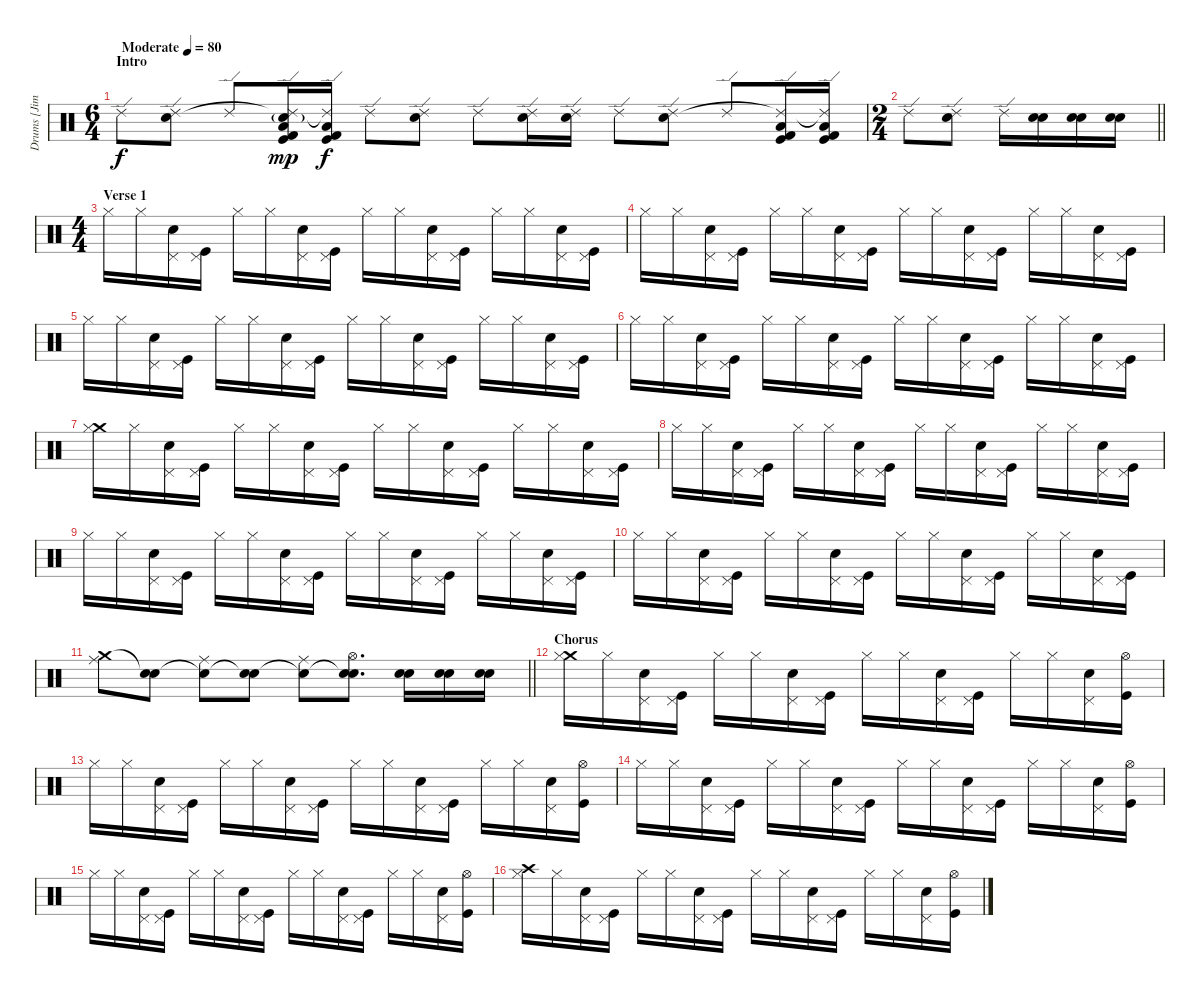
\track ("Drums [Jim Duguid]" "Drums [Jim") {instrument percussion}
\staff {score}
\articulation defaults
\ts (6 4)
\section ("" "Intro")
\tempo (80 "Moderate")
\clef neutral
\ks c "Ride (edge) 2".8{dy f}
("Ride (edge) 2" "Hand Clap (hit)").8 "Ride (edge) 2".8 ("Low Tom (hit)" "Ride (edge) 2"{t} "Kick (hit)" "Kick (hit) 2" "Hand Clap (hit)"{g}).16{dy mp} ("Low Tom (hit)" "Ride (edge) 2"{t} "Kick (hit)" "Kick (hit) 2").16{dy f} "Ride (edge) 2".8 ("Ride (edge) 2" "Hand Clap (hit)").8 "Ride (edge) 2".8 ("Ride (edge) 2" "Hand Clap (hit)").16 ("Ride (edge) 2" "Hand Clap (hit)").16 "Ride (edge) 2".8 ("Ride (edge) 2" "Hand Clap (hit)").8 "Ride (edge) 2".8 ("Low Tom (hit)" "Ride (edge) 2"{t} "Kick (hit)" "Kick (hit) 2").16 ("Low Tom (hit)" "Ride (edge) 2"{t} "Kick (hit)" "Kick (hit) 2").16 |
\ts (2 4)
\barLineRight lightlight "Ride (edge) 2".8
("Ride (edge) 2" "Hand Clap (hit)").8 "Ride (edge) 2".16 ("Snare (hit) 2" "Electric Snare (hit)").16 ("Snare (hit) 2" "Electric Snare (hit)").16 ("Snare (hit) 2" "Electric Snare (hit)").16 |
\ts (4 4)
\section ("" "Verse 1")
"Hi-Hat (closed)".16 "Hi-Hat (closed)".16 ("Pedal Hi-Hat (hit)" "Snare (hit) 2").16 ("Pedal Hi-Hat (hit)" "Kick (hit)").16 "Hi-Hat (closed)".16 "Hi-Hat (closed)".16 ("Pedal Hi-Hat (hit)" "Snare (hit) 2").16 ("Pedal Hi-Hat (hit)" "Kick (hit)").16 "Hi-Hat (closed)".16 "Hi-Hat (closed)".16 ("Pedal Hi-Hat (hit)" "Snare (hit) 2").16 ("Pedal Hi-Hat (hit)" "Kick (hit)").16 "Hi-Hat (closed)".16 "Hi-Hat (closed)".16 ("Pedal Hi-Hat (hit)" "Snare (hit) 2").16 ("Pedal Hi-Hat (hit)" "Kick (hit)").16 |
"Hi-Hat (closed)".16 "Hi-Hat (closed)".16 ("Pedal Hi-Hat (hit)" "Snare (hit) 2").16 ("Pedal Hi-Hat (hit)" "Kick (hit)").16 "Hi-Hat (closed)".16 "Hi-Hat (closed)".16 ("Pedal Hi-Hat (hit)" "Snare (hit) 2").16 ("Pedal Hi-Hat (hit)" "Kick (hit)").16 "Hi-Hat (closed)".16 "Hi-Hat (closed)".16 ("Pedal Hi-Hat (hit)" "Snare (hit) 2").16 ("Pedal Hi-Hat (hit)" "Kick (hit)").16 "Hi-Hat (closed)".16 "Hi-Hat (closed)".16 ("Pedal Hi-Hat (hit)" "Snare (hit) 2").16 ("Pedal Hi-Hat (hit)" "Kick (hit)").16 |
"Hi-Hat (closed)".16 "Hi-Hat (closed)".16 ("Pedal Hi-Hat (hit)" "Snare (hit) 2").16 ("Pedal Hi-Hat (hit)" "Kick (hit)").16 "Hi-Hat (closed)".16 "Hi-Hat (closed)".16 ("Pedal Hi-Hat (hit)" "Snare (hit) 2").16 ("Pedal Hi-Hat (hit)" "Kick (hit)").16 "Hi-Hat (closed)".16 "Hi-Hat (closed)".16 ("Pedal Hi-Hat (hit)" "Snare (hit) 2").16 ("Pedal Hi-Hat (hit)" "Kick (hit)").16 "Hi-Hat (closed)".16 "Hi-Hat (closed)".16 ("Pedal Hi-Hat (hit)" "Snare (hit) 2").16 ("Pedal Hi-Hat (hit)" "Kick (hit)").16 |
"Hi-Hat (closed)".16 "Hi-Hat (closed)".16 ("Pedal Hi-Hat (hit)" "Snare (hit) 2").16 ("Pedal Hi-Hat (hit)" "Kick (hit)").16 "Hi-Hat (closed)".16 "Hi-Hat (closed)".16 ("Pedal Hi-Hat (hit)" "Snare (hit) 2").16 ("Pedal Hi-Hat (hit)" "Kick (hit)").16 "Hi-Hat (closed)".16 "Hi-Hat (closed)".16 ("Pedal Hi-Hat (hit)" "Snare (hit) 2").16 ("Pedal Hi-Hat (hit)" "Kick (hit)").16 "Hi-Hat (closed)".16 "Hi-Hat (closed)".16 ("Pedal Hi-Hat (hit)" "Snare (hit) 2").16 ("Pedal Hi-Hat (hit)" "Kick (hit)").16 |
("Crash medium (hit)" "Hi-Hat (closed)").16 "Hi-Hat (closed)".16 ("Pedal Hi-Hat (hit)" "Snare (hit) 2").16 ("Pedal Hi-Hat (hit)" "Kick (hit)").16 "Hi-Hat (closed)".16 "Hi-Hat (closed)".16 ("Pedal Hi-Hat (hit)" "Snare (hit) 2").16 ("Pedal Hi-Hat (hit)" "Kick (hit)").16 "Hi-Hat (closed)".16 "Hi-Hat (closed)".16 ("Pedal Hi-Hat (hit)" "Snare (hit) 2").16 ("Pedal Hi-Hat (hit)" "Kick (hit)").16 "Hi-Hat (closed)".16 "Hi-Hat (closed)".16 ("Pedal Hi-Hat (hit)" "Snare (hit) 2").16 ("Pedal Hi-Hat (hit)" "Kick (hit)").16 |
"Hi-Hat (closed)".16 "Hi-Hat (closed)".16 ("Pedal Hi-Hat (hit)" "Snare (hit) 2").16 ("Pedal Hi-Hat (hit)" "Kick (hit)").16 "Hi-Hat (closed)".16 "Hi-Hat (closed)".16 ("Pedal Hi-Hat (hit)" "Snare (hit) 2").16 ("Pedal Hi-Hat (hit)" "Kick (hit)").16 "Hi-Hat (closed)".16 "Hi-Hat (closed)".16 ("Pedal Hi-Hat (hit)" "Snare (hit) 2").16 ("Pedal Hi-Hat (hit)" "Kick (hit)").16 "Hi-Hat (closed)".16 "Hi-Hat (closed)".16 ("Pedal Hi-Hat (hit)" "Snare (hit) 2").16 ("Pedal Hi-Hat (hit)" "Kick (hit)").16 |
"Hi-Hat (closed)".16 "Hi-Hat (closed)".16 ("Pedal Hi-Hat (hit)" "Snare (hit) 2").16 ("Pedal Hi-Hat (hit)" "Kick (hit)").16 "Hi-Hat (closed)".16 "Hi-Hat (closed)".16 ("Pedal Hi-Hat (hit)" "Snare (hit) 2").16 ("Pedal Hi-Hat (hit)" "Kick (hit)").16 "Hi-Hat (closed)".16 "Hi-Hat (closed)".16 ("Pedal Hi-Hat (hit)" "Snare (hit) 2").16 ("Pedal Hi-Hat (hit)" "Kick (hit)").16 "Hi-Hat (closed)".16 "Hi-Hat (closed)".16 ("Pedal Hi-Hat (hit)" "Snare (hit) 2").16 ("Pedal Hi-Hat (hit)" "Kick (hit)").16 |
"Hi-Hat (closed)".16 "Hi-Hat (closed)".16 ("Pedal Hi-Hat (hit)" "Snare (hit) 2").16 ("Pedal Hi-Hat (hit)" "Kick (hit)").16 "Hi-Hat (closed)".16 "Hi-Hat (closed)".16 ("Pedal Hi-Hat (hit)" "Snare (hit) 2").16 ("Pedal Hi-Hat (hit)" "Kick (hit)").16 "Hi-Hat (closed)".16 "Hi-Hat (closed)".16 ("Pedal Hi-Hat (hit)" "Snare (hit) 2").16 ("Pedal Hi-Hat (hit)" "Kick (hit)").16 "Hi-Hat (closed)".16 "Hi-Hat (closed)".16 ("Pedal Hi-Hat (hit)" "Snare (hit) 2").16 ("Pedal Hi-Hat (hit)" "Kick (hit)").16 |
\barLineRight lightlight
("Crash medium (hit)" "Ride (middle)").8 ("Snare (hit)"{t} "Hand Clap (hit)").8 ("Snare (hit)"{t} "Ride (middle)").8 ("Snare (hit)"{t} "Hand Clap (hit)").8 ("Snare (hit)"{t} "Ride (middle)").8 ("Snare (hit)"{t} "Hi-Hat (open)" "Hand Clap (hit)").8{d} ("Snare (hit) 2" "Electric Snare (hit)").16 ("Snare (hit) 2" "Electric Snare (hit)").16 ("Snare (hit) 2" "Electric Snare (hit)").16 |
\section ("" "Chorus")
("Crash medium (hit)" "Hi-Hat (closed)").16 "Hi-Hat (closed)".16 ("Pedal Hi-Hat (hit)" "Snare (hit) 2").16 ("Pedal Hi-Hat (hit)" "Kick (hit)").16 "Hi-Hat (closed)".16 "Hi-Hat (closed)".16 ("Pedal Hi-Hat (hit)" "Snare (hit) 2").16 ("Pedal Hi-Hat (hit)" "Kick (hit)").16 "Hi-Hat (closed)".16 "Hi-Hat (closed)".16 ("Pedal Hi-Hat (hit)" "Snare (hit) 2").16 ("Pedal Hi-Hat (hit)" "Kick (hit)").16 "Hi-Hat (closed)".16 "Hi-Hat (closed)".16 ("Pedal Hi-Hat (hit)" "Snare (hit) 2").16 ("Hi-Hat (open)" "Kick (hit)").16 |
"Hi-Hat (closed)".16 "Hi-Hat (closed)".16 ("Pedal Hi-Hat (hit)" "Snare (hit) 2").16 ("Pedal Hi-Hat (hit)" "Kick (hit)").16 "Hi-Hat (closed)".16 "Hi-Hat (closed)".16 ("Pedal Hi-Hat (hit)" "Snare (hit) 2").16 ("Pedal Hi-Hat (hit)" "Kick (hit)").16 "Hi-Hat (closed)".16 "Hi-Hat (closed)".16 ("Pedal Hi-Hat (hit)" "Snare (hit) 2").16 ("Pedal Hi-Hat (hit)" "Kick (hit)").16 "Hi-Hat (closed)".16 "Hi-Hat (closed)".16 ("Pedal Hi-Hat (hit)" "Snare (hit) 2").16 ("Hi-Hat (open)" "Kick (hit)").16 |
"Hi-Hat (closed)".16 "Hi-Hat (closed)".16 ("Pedal Hi-Hat (hit)" "Snare (hit) 2").16 ("Pedal Hi-Hat (hit)" "Kick (hit)").16 "Hi-Hat (closed)".16 "Hi-Hat (closed)".16 ("Pedal Hi-Hat (hit)" "Snare (hit) 2").16 ("Pedal Hi-Hat (hit)" "Kick (hit)").16 "Hi-Hat (closed)".16 "Hi-Hat (closed)".16 ("Pedal Hi-Hat (hit)" "Snare (hit) 2").16 ("Pedal Hi-Hat (hit)" "Kick (hit)").16 "Hi-Hat (closed)".16 "Hi-Hat (closed)".16 ("Pedal Hi-Hat (hit)" "Snare (hit) 2").16 ("Hi-Hat (open)" "Kick (hit)").16 |
"Hi-Hat (closed)".16 "Hi-Hat (closed)".16 ("Pedal Hi-Hat (hit)" "Snare (hit) 2").16 ("Pedal Hi-Hat (hit)" "Kick (hit)").16 "Hi-Hat (closed)".16 "Hi-Hat (closed)".16 ("Pedal Hi-Hat (hit)" "Snare (hit) 2").16 ("Pedal Hi-Hat (hit)" "Kick (hit)").16 "Hi-Hat (closed)".16 "Hi-Hat (closed)".16 ("Pedal Hi-Hat (hit)" "Snare (hit) 2").16 ("Pedal Hi-Hat (hit)" "Kick (hit)").16 "Hi-Hat (closed)".16 "Hi-Hat (closed)".16 ("Pedal Hi-Hat (hit)" "Snare (hit) 2").16 ("Hi-Hat (open)" "Kick (hit)").16 |
("Crash high (hit)" "Hi-Hat (closed)").16 "Hi-Hat (closed)".16 ("Pedal Hi-Hat (hit)" "Snare (hit) 2").16 ("Pedal Hi-Hat (hit)" "Kick (hit)").16 "Hi-Hat (closed)".16 "Hi-Hat (closed)".16 ("Pedal Hi-Hat (hit)" "Snare (hit) 2").16 ("Pedal Hi-Hat (hit)" "Kick (hit)").16 "Hi-Hat (closed)".16 "Hi-Hat (closed)".16 ("Pedal Hi-Hat (hit)" "Snare (hit) 2").16 ("Pedal Hi-Hat (hit)" "Kick (hit)").16 "Hi-Hat (closed)".16 "Hi-Hat (closed)".16 ("Pedal Hi-Hat (hit)" "Snare (hit) 2").16 ("Hi-Hat (open)" "Kick (hit)").16
